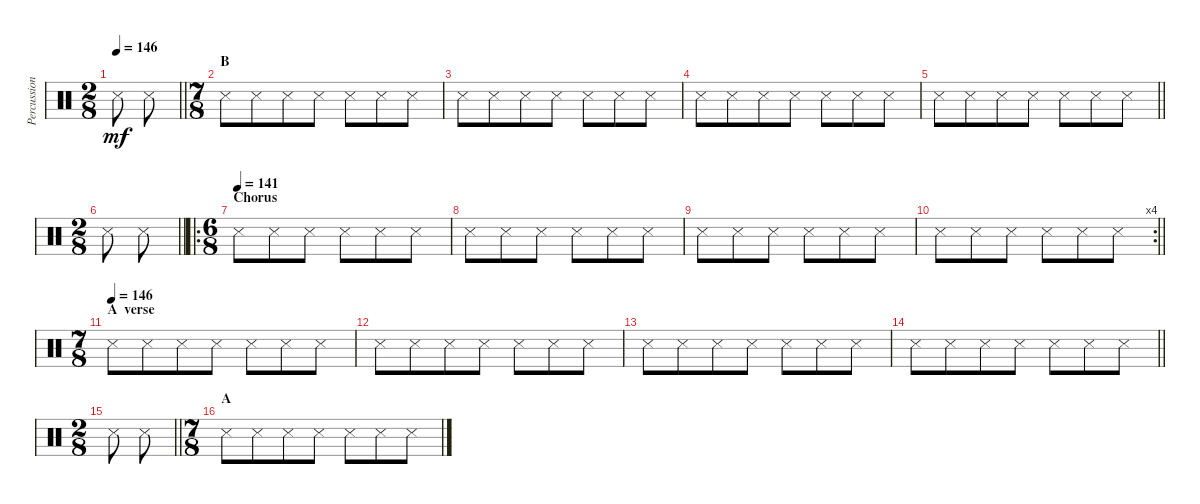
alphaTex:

\track ("Percussion" "Percussion") {instrument percussion}
\staff {score}
\articulation defaults
\ts (2 8)
\tempo 146
\clef neutral
\barLineRight lightlight
\ks c "Metronome (hit)".8{dy mf} "Metronome (hit)".8
|
\ts (7 8)
\section ("" "B")
"Metronome (hit)".8 "Metronome (hit)".8 "Metronome (hit)".8 "Metronome (hit)".8 "Metronome (hit)".8 "Metronome (hit)".8 "Metronome (hit)".8 |
"Metronome (hit)".8 "Metronome (hit)".8 "Metronome (hit)".8 "Metronome (hit)".8 "Metronome (hit)".8 "Metronome (hit)".8 "Metronome (hit)".8 |
"Metronome (hit)".8 "Metronome (hit)".8 "Metronome (hit)".8 "Metronome (hit)".8 "Metronome (hit)".8 "Metronome (hit)".8 "Metronome (hit)".8 |
\barLineRight lightlight "Metronome (hit)".8 "Metronome (hit)".8 "Metronome (hit)".8 "Metronome (hit)".8 "Metronome (hit)".8 "Metronome (hit)".8 "Metronome (hit)".8
|
\ts (2 8)
\barLineRight lightlight "Metronome (hit)".8 "Metronome (hit)".8
|
\ro
\ts (6 8)
\section ("" "Chorus")
\tempo (141)
"Metronome (hit)".8 "Metronome (hit)".8 "Metronome (hit)".8 "Metronome (hit)".8 "Metronome (hit)".8 "Metronome (hit)".8 |
"Metronome (hit)".8 "Metronome (hit)".8 "Metronome (hit)".8 "Metronome (hit)".8 "Metronome (hit)".8 "Metronome (hit)".8 |
"Metronome (hit)".8 "Metronome (hit)".8 "Metronome (hit)".8 "Metronome (hit)".8 "Metronome (hit)".8 "Metronome (hit)".8 |
\rc 4
\barLineRight lightlight "Metronome (hit)".8 "Metronome (hit)".8 "Metronome (hit)".8 "Metronome (hit)".8 "Metronome (hit)".8 "Metronome (hit)".8
|
\ts (7 8)
\section ("" "A  verse")
\tempo (146)
"Metronome (hit)".8 "Metronome (hit)".8 "Metronome (hit)".8 "Metronome (hit)".8 "Metronome (hit)".8 "Metronome (hit)".8 "Metronome (hit)".8 |
"Metronome (hit)".8 "Metronome (hit)".8 "Metronome (hit)".8 "Metronome (hit)".8 "Metronome (hit)".8 "Metronome (hit)".8 "Metronome (hit)".8 |
"Metronome (hit)".8 "Metronome (hit)".8 "Metronome (hit)".8 "Metronome (hit)".8 "Metronome (hit)".8 "Metronome (hit)".8 "Metronome (hit)".8 |
\barLineRight lightlight "Metronome (hit)".8 "Metronome (hit)".8 "Metronome (hit)".8 "Metronome (hit)".8 "Metronome (hit)".8 "Metronome (hit)".8 "Metronome (hit)".8
|
\ts (2 8)
\barLineRight lightlight "Metronome (hit)".8 "Metronome (hit)".8
|
\ts (7 8)
\section ("" "A")
"Metronome (hit)".8 "Metronome (hit)".8 "Metronome (hit)".8 "Metronome (hit)".8 "Metronome (hit)".8 "Metronome (hit)".8 "Metronome (hit)".8
